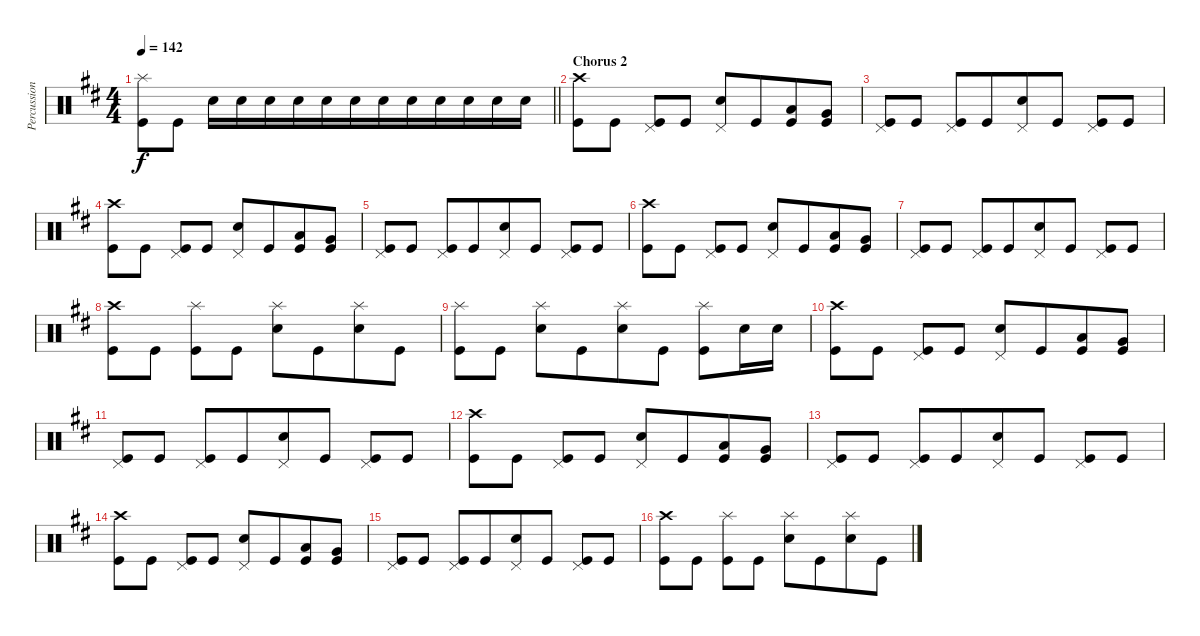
\track ("Percussion" "Percussion") {instrument percussion}
\staff {score}
\articulation defaults
\ts (4 4)
\tempo 142
\clef neutral
\barLineRight lightlight
\ks d
("Kick (hit)" "Splash (hit)").8{dy f} "Kick (hit)".8 "Snare (hit) 2".16{beam merge} "Snare (hit) 2".16 "Snare (hit) 2".16 "Snare (hit) 2".16{beam merge} "Snare (hit) 2".16{beam merge} "Snare (hit) 2".16 "Snare (hit) 2".16{beam merge} "Snare (hit) 2".16{beam merge} "Snare (hit) 2".16 "Snare (hit) 2".16{beam merge} "Snare (hit) 2".16{beam merge} "Snare (hit) 2".16 |
\section ("" "Chorus 2")
("Kick (hit)" "Crash high (hit)").8{beam merge} "Kick (hit)".8 ("Kick (hit)" "Pedal Hi-Hat (hit)").8{beam merge} "Kick (hit)".8 ("Snare (hit) 2" "Pedal Hi-Hat (hit)").8{beam merge} "Kick (hit)".8{beam merge} ("Kick (hit)" "Low Tom (hit)").8 ("Kick (hit)" "Very Low Tom (hit)").8 |
("Kick (hit)" "Pedal Hi-Hat (hit)").8 "Kick (hit)".8 ("Kick (hit)" "Pedal Hi-Hat (hit)").8 "Kick (hit)".8{beam merge} ("Snare (hit) 2" "Pedal Hi-Hat (hit)").8{beam merge} "Kick (hit)".8 ("Kick (hit)" "Pedal Hi-Hat (hit)").8 "Kick (hit)".8 |
("Kick (hit)" "Crash high (hit)").8{beam merge} "Kick (hit)".8 ("Kick (hit)" "Pedal Hi-Hat (hit)").8{beam merge} "Kick (hit)".8 ("Snare (hit) 2" "Pedal Hi-Hat (hit)").8{beam merge} "Kick (hit)".8{beam merge} ("Kick (hit)" "Low Tom (hit)").8 ("Kick (hit)" "Very Low Tom (hit)").8 |
("Kick (hit)" "Pedal Hi-Hat (hit)").8 "Kick (hit)".8 ("Kick (hit)" "Pedal Hi-Hat (hit)").8 "Kick (hit)".8{beam merge} ("Snare (hit) 2" "Pedal Hi-Hat (hit)").8{beam merge} "Kick (hit)".8 ("Kick (hit)" "Pedal Hi-Hat (hit)").8 "Kick (hit)".8 |
("Kick (hit)" "Crash high (hit)").8{beam merge} "Kick (hit)".8 ("Kick (hit)" "Pedal Hi-Hat (hit)").8{beam merge} "Kick (hit)".8 ("Snare (hit) 2" "Pedal Hi-Hat (hit)").8{beam merge} "Kick (hit)".8{beam merge} ("Kick (hit)" "Low Tom (hit)").8 ("Kick (hit)" "Very Low Tom (hit)").8 |
("Kick (hit)" "Pedal Hi-Hat (hit)").8 "Kick (hit)".8 ("Kick (hit)" "Pedal Hi-Hat (hit)").8 "Kick (hit)".8{beam merge} ("Snare (hit) 2" "Pedal Hi-Hat (hit)").8{beam merge} "Kick (hit)".8 ("Kick (hit)" "Pedal Hi-Hat (hit)").8 "Kick (hit)".8 |
("Kick (hit)" "Crash high (hit)").8{beam merge} "Kick (hit)".8 ("Kick (hit)" "Splash (hit)").8{beam merge} "Kick (hit)".8 ("Snare (hit) 2" "Splash (hit)").8{beam merge} "Kick (hit)".8{beam merge} ("Snare (hit) 2" "Splash (hit)").8 "Kick (hit)".8 |
("Kick (hit)" "Splash (hit)").8 "Kick (hit)".8 ("Snare (hit) 2" "Splash (hit)").8 "Kick (hit)".8{beam merge} ("Snare (hit) 2" "Splash (hit)").8{beam merge} "Kick (hit)".8 ("Kick (hit)" "Splash (hit)").8 "Snare (hit) 2".16 "Snare (hit) 2".16 |
("Kick (hit)" "Crash high (hit)").8{beam merge} "Kick (hit)".8 ("Kick (hit)" "Pedal Hi-Hat (hit)").8{beam merge} "Kick (hit)".8 ("Snare (hit) 2" "Pedal Hi-Hat (hit)").8{beam merge} "Kick (hit)".8{beam merge} ("Kick (hit)" "Low Tom (hit)").8 ("Kick (hit)" "Very Low Tom (hit)").8 |
("Kick (hit)" "Pedal Hi-Hat (hit)").8 "Kick (hit)".8 ("Kick (hit)" "Pedal Hi-Hat (hit)").8 "Kick (hit)".8{beam merge} ("Snare (hit) 2" "Pedal Hi-Hat (hit)").8{beam merge} "Kick (hit)".8 ("Kick (hit)" "Pedal Hi-Hat (hit)").8 "Kick (hit)".8 |
("Kick (hit)" "Crash high (hit)").8{beam merge} "Kick (hit)".8 ("Kick (hit)" "Pedal Hi-Hat (hit)").8{beam merge} "Kick (hit)".8 ("Snare (hit) 2" "Pedal Hi-Hat (hit)").8{beam merge} "Kick (hit)".8{beam merge} ("Kick (hit)" "Low Tom (hit)").8 ("Kick (hit)" "Very Low Tom (hit)").8 |
("Kick (hit)" "Pedal Hi-Hat (hit)").8 "Kick (hit)".8 ("Kick (hit)" "Pedal Hi-Hat (hit)").8 "Kick (hit)".8{beam merge} ("Snare (hit) 2" "Pedal Hi-Hat (hit)").8{beam merge} "Kick (hit)".8 ("Kick (hit)" "Pedal Hi-Hat (hit)").8 "Kick (hit)".8 |
("Kick (hit)" "Crash high (hit)").8{beam merge} "Kick (hit)".8 ("Kick (hit)" "Pedal Hi-Hat (hit)").8{beam merge} "Kick (hit)".8 ("Snare (hit) 2" "Pedal Hi-Hat (hit)").8{beam merge} "Kick (hit)".8{beam merge} ("Kick (hit)" "Low Tom (hit)").8 ("Kick (hit)" "Very Low Tom (hit)").8 |
("Kick (hit)" "Pedal Hi-Hat (hit)").8 "Kick (hit)".8 ("Kick (hit)" "Pedal Hi-Hat (hit)").8 "Kick (hit)".8{beam merge} ("Snare (hit) 2" "Pedal Hi-Hat (hit)").8{beam merge} "Kick (hit)".8 ("Kick (hit)" "Pedal Hi-Hat (hit)").8 "Kick (hit)".8 |
("Kick (hit)" "Crash high (hit)").8{beam merge} "Kick (hit)".8 ("Kick (hit)" "Splash (hit)").8{beam merge} "Kick (hit)".8 ("Snare (hit) 2" "Splash (hit)").8{beam merge} "Kick (hit)".8{beam merge} ("Snare (hit) 2" "Splash (hit)").8 "Kick (hit)".8
